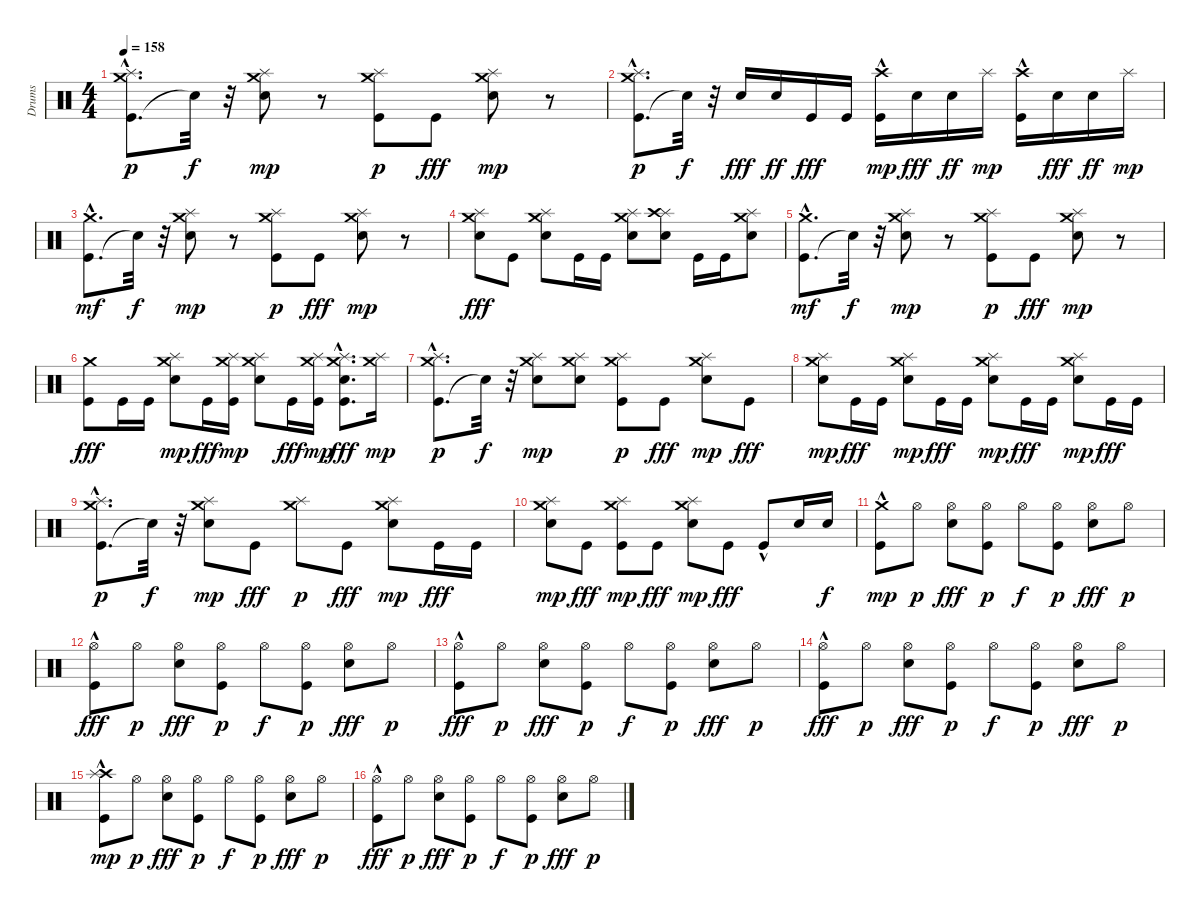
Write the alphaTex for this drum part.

\track ("Drums" "Drums") {instrument percussion}
\staff {score}
\articulation defaults
\ts (4 4)
\tempo 158
\clef neutral
\ks c
("Kick (hit)"{hac} "Splash (hit)" "Crash medium (hit)").8{d dy p} "Snare (hit)"{t}.32{dy f} r.32 ("Electric Snare (hit)" "Crash medium (hit)" "Splash (hit)").8{dy mp} r.8 ("Kick (hit)" "Splash (hit)" "Crash medium (hit)").8{dy p} "Kick (hit)".8{dy fff} ("Electric Snare (hit)" "Crash medium (hit)" "Splash (hit)").8{dy mp} r.8 |
("Kick (hit)"{hac} "Splash (hit)" "Crash medium (hit)").8{d dy p} "Snare (hit)"{t}.32{dy f} r.32 "Electric Snare (hit)".16{dy fff} "Electric Snare (hit)".16{dy ff} "Kick (hit)".16{dy fff} "Kick (hit)".16 ("Crash high (hit)" "Kick (hit)"{hac}).16{dy mp} "Electric Snare (hit)".16{dy fff} "Electric Snare (hit)".16{dy ff} "Splash (hit)".16{dy mp} ("Crash high (hit)" "Kick (hit)"{hac}).16 "Electric Snare (hit)".16{dy fff} "Electric Snare (hit)".16{dy ff} "Splash (hit)".16{dy mp} |
("Kick (hit)"{hac} "Crash medium (hit)").8{d dy mf} "Snare (hit)"{t}.32{dy f} r.32 ("Electric Snare (hit)" "Crash medium (hit)" "Splash (hit)").8{dy mp} r.8 ("Kick (hit)" "Splash (hit)" "Crash medium (hit)").8{dy p} "Kick (hit)".8{dy fff} ("Electric Snare (hit)" "Crash medium (hit)" "Splash (hit)").8{dy mp} r.8 |
("Splash (hit)" "Crash medium (hit)" "Electric Snare (hit)").8{dy fff} "Kick (hit)".8 ("Splash (hit)" "Crash medium (hit)" "Electric Snare (hit)").8 "Kick (hit)".16 "Kick (hit)".16 ("Splash (hit)" "Crash medium (hit)" "Electric Snare (hit)").8 ("Splash (hit)" "Crash high (hit)" "Electric Snare (hit)").8 "Kick (hit)".16 "Kick (hit)".16 ("Splash (hit)" "Crash medium (hit)" "Electric Snare (hit)").8 |
("Kick (hit)"{hac} "Crash medium (hit)").8{d dy mf} "Snare (hit)"{t}.32{dy f} r.32 ("Electric Snare (hit)" "Crash medium (hit)" "Splash (hit)").8{dy mp} r.8 ("Kick (hit)" "Splash (hit)" "Crash medium (hit)").8{dy p} "Kick (hit)".8{dy fff} ("Electric Snare (hit)" "Crash medium (hit)" "Splash (hit)").8{dy mp} r.8 |
("Crash medium (hit)" "Kick (hit)").8{dy fff} "Kick (hit)".16 "Kick (hit)".16 ("Electric Snare (hit)" "Crash medium (hit)" "Splash (hit)").8{dy mp} "Kick (hit)".16{dy fff} ("Kick (hit)" "Crash medium (hit)" "Splash (hit)").16{dy mp} ("Electric Snare (hit)" "Crash medium (hit)" "Splash (hit)").8 "Kick (hit)".16{dy fff} ("Kick (hit)" "Crash medium (hit)" "Splash (hit)").16{dy mp} ("Electric Snare (hit)" "Crash medium (hit)" "Splash (hit)" "Kick (hit)"{hac}).8{d dy fff} ("Crash medium (hit)" "Splash (hit)").16{dy mp} |
("Kick (hit)"{hac} "Splash (hit)" "Crash medium (hit)").8{d dy p} "Snare (hit)"{t}.32{dy f} r.32 ("Electric Snare (hit)" "Crash medium (hit)" "Splash (hit)").8{dy mp} ("Electric Snare (hit)" "Crash medium (hit)" "Splash (hit)").8 ("Kick (hit)" "Splash (hit)" "Crash medium (hit)").8{dy p} "Kick (hit)".8{dy fff} ("Electric Snare (hit)" "Crash medium (hit)" "Splash (hit)").8{dy mp} "Kick (hit)".8{dy fff} |
("Electric Snare (hit)" "Crash medium (hit)" "Splash (hit)").8{dy mp} "Kick (hit)".16{dy fff} "Kick (hit)".16 ("Electric Snare (hit)" "Crash medium (hit)" "Splash (hit)").8{dy mp} "Kick (hit)".16{dy fff} "Kick (hit)".16 ("Electric Snare (hit)" "Crash medium (hit)" "Splash (hit)").8{dy mp} "Kick (hit)".16{dy fff} "Kick (hit)".16 ("Electric Snare (hit)" "Crash medium (hit)" "Splash (hit)").8{dy mp} "Kick (hit)".16{dy fff} "Kick (hit)".16 |
("Kick (hit)"{hac} "Splash (hit)" "Crash medium (hit)").8{d dy p} "Snare (hit)"{t}.32{dy f} r.32 ("Electric Snare (hit)" "Crash medium (hit)" "Splash (hit)").8{dy mp} "Kick (hit)".8{dy fff} ("Splash (hit)" "Crash medium (hit)").8{dy p} "Kick (hit)".8{dy fff} ("Electric Snare (hit)" "Crash medium (hit)" "Splash (hit)").8{dy mp} "Kick (hit)".16{dy fff} "Kick (hit)".16 |
("Electric Snare (hit)" "Crash medium (hit)" "Splash (hit)").8{dy mp} "Kick (hit)".8{dy fff} ("Kick (hit)" "Crash medium (hit)" "Splash (hit)").8{dy mp} "Kick (hit)".8{dy fff} ("Electric Snare (hit)" "Crash medium (hit)" "Splash (hit)").8{dy mp} "Kick (hit)".8{dy fff} "Kick (hit)"{hac}.8 "Electric Snare (hit)".16 "Electric Snare (hit)".16{dy f} |
("Kick (hit)"{hac} "Crash medium (hit)").8{dy mp} "Hi-Hat (open)".8{dy p} ("Electric Snare (hit)" "Hi-Hat (open)").8{dy fff} ("Kick (hit)" "Hi-Hat (open)").8{dy p} "Hi-Hat (open)".8{dy f} ("Kick (hit)" "Hi-Hat (open)").8{dy p} ("Electric Snare (hit)" "Hi-Hat (open)").8{dy fff} "Hi-Hat (open)".8{dy p} |
("Kick (hit)"{hac} "Hi-Hat (open)").8{dy fff} "Hi-Hat (open)".8{dy p} ("Electric Snare (hit)" "Hi-Hat (open)").8{dy fff} ("Kick (hit)" "Hi-Hat (open)").8{dy p} "Hi-Hat (open)".8{dy f} ("Kick (hit)" "Hi-Hat (open)").8{dy p} ("Electric Snare (hit)" "Hi-Hat (open)").8{dy fff} "Hi-Hat (open)".8{dy p} |
("Kick (hit)"{hac} "Hi-Hat (open)").8{dy fff} "Hi-Hat (open)".8{dy p} ("Electric Snare (hit)" "Hi-Hat (open)").8{dy fff} ("Kick (hit)" "Hi-Hat (open)").8{dy p} "Hi-Hat (open)".8{dy f} ("Kick (hit)" "Hi-Hat (open)").8{dy p} ("Electric Snare (hit)" "Hi-Hat (open)").8{dy fff} "Hi-Hat (open)".8{dy p} |
("Kick (hit)"{hac} "Hi-Hat (open)").8{dy fff} "Hi-Hat (open)".8{dy p} ("Electric Snare (hit)" "Hi-Hat (open)").8{dy fff} ("Kick (hit)" "Hi-Hat (open)").8{dy p} "Hi-Hat (open)".8{dy f} ("Kick (hit)" "Hi-Hat (open)").8{dy p} ("Electric Snare (hit)" "Hi-Hat (open)").8{dy fff} "Hi-Hat (open)".8{dy p} |
("Kick (hit)"{hac} "Crash high (hit)" "Splash (hit)").8{dy mp} "Hi-Hat (open)".8{dy p} ("Electric Snare (hit)" "Hi-Hat (open)").8{dy fff} ("Kick (hit)" "Hi-Hat (open)").8{dy p} "Hi-Hat (open)".8{dy f} ("Kick (hit)" "Hi-Hat (open)").8{dy p} ("Electric Snare (hit)" "Hi-Hat (open)").8{dy fff} "Hi-Hat (open)".8{dy p} |
("Kick (hit)"{hac} "Hi-Hat (open)").8{dy fff} "Hi-Hat (open)".8{dy p} ("Electric Snare (hit)" "Hi-Hat (open)").8{dy fff} ("Kick (hit)" "Hi-Hat (open)").8{dy p} "Hi-Hat (open)".8{dy f} ("Kick (hit)" "Hi-Hat (open)").8{dy p} ("Electric Snare (hit)" "Hi-Hat (open)").8{dy fff} "Hi-Hat (open)".8{dy p}
